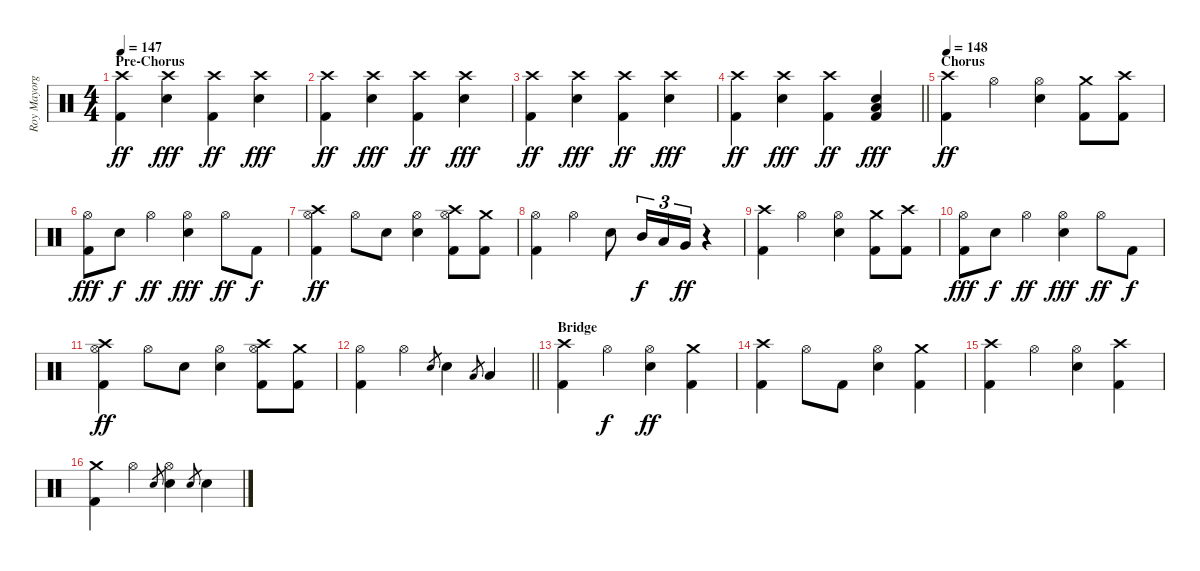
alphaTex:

\track ("Roy Mayorga (Drums)" "Roy Mayorg") {instrument percussion}
\staff {score}
\articulation defaults
\ts (4 4)
\section ("" "Pre-Chorus")
\tempo 147
\clef neutral
\ks c
("Crash high (hit)" "Kick (hit) 2").4{dy ff} ("Crash high (hit)" "Electric Snare (hit)").4{dy fff} ("Crash high (hit)" "Kick (hit) 2").4{dy ff} ("Crash high (hit)" "Electric Snare (hit)").4{dy fff} |
("Crash high (hit)" "Kick (hit) 2").4{dy ff} ("Crash high (hit)" "Electric Snare (hit)").4{dy fff} ("Crash high (hit)" "Kick (hit) 2").4{dy ff} ("Crash high (hit)" "Electric Snare (hit)").4{dy fff} |
("Crash high (hit)" "Kick (hit) 2").4{dy ff} ("Crash high (hit)" "Electric Snare (hit)").4{dy fff} ("Crash high (hit)" "Kick (hit) 2").4{dy ff} ("Crash high (hit)" "Electric Snare (hit)").4{dy fff} |
\barLineRight lightlight
("Crash high (hit)" "Kick (hit) 2").4{dy ff} ("Crash high (hit)" "Electric Snare (hit)").4{dy fff} ("Crash high (hit)" "Kick (hit) 2").4{dy ff} ("Low Tom (hit)" "Electric Snare (hit)" "Kick (hit) 2").4{dy fff} |
\section ("" "Chorus")
\tempo 148
("Crash high (hit)" "Kick (hit) 2").4{dy ff} "Hi-Hat (open)".4 ("Hi-Hat (open)" "Electric Snare (hit)").4 ("Crash medium (hit)" "Kick (hit) 2").8 ("Crash high (hit)" "Kick (hit) 2").8 |
("Hi-Hat (open)" "Kick (hit) 2").8{dy fff} "Electric Snare (hit)".8{dy f} "Hi-Hat (open)".4{dy ff} ("Hi-Hat (open)" "Electric Snare (hit)").4{dy fff} "Hi-Hat (open)".8{dy ff} "Kick (hit) 2".8{dy f} |
("Crash high (hit)" "Hi-Hat (open)" "Kick (hit) 2").4{dy ff} "Hi-Hat (open)".8 "Electric Snare (hit)".8 ("Hi-Hat (open)" "Electric Snare (hit)").4 ("Crash high (hit)" "Hi-Hat (open)" "Kick (hit) 2").8 ("Crash medium (hit)" "Kick (hit) 2").8 |
("Hi-Hat (open)" "Kick (hit) 2").4 "Hi-Hat (open)".4 "Electric Snare (hit)".8 "Mid Tom (hit)".16{tu (3 2) dy f} "Low Tom (hit)".16{tu (3 2)} "Very Low Tom (hit)".16{tu (3 2) dy ff} r.4 |
("Crash high (hit)" "Kick (hit) 2").4 "Hi-Hat (open)".4 ("Hi-Hat (open)" "Electric Snare (hit)").4 ("Crash medium (hit)" "Kick (hit) 2").8 ("Crash high (hit)" "Kick (hit) 2").8 |
("Hi-Hat (open)" "Kick (hit) 2").8{dy fff} "Electric Snare (hit)".8{dy f} "Hi-Hat (open)".4{dy ff} ("Hi-Hat (open)" "Electric Snare (hit)").4{dy fff} "Hi-Hat (open)".8{dy ff} "Kick (hit) 2".8{dy f} |
("Crash high (hit)" "Hi-Hat (open)" "Kick (hit) 2").4{dy ff} "Hi-Hat (open)".8 "Electric Snare (hit)".8 ("Hi-Hat (open)" "Electric Snare (hit)").4 ("Crash high (hit)" "Hi-Hat (open)" "Kick (hit) 2").8 ("Crash medium (hit)" "Kick (hit) 2").8 |
\barLineRight lightlight
("Hi-Hat (open)" "Kick (hit) 2").4 "Hi-Hat (open)".4 "Electric Snare (hit)".8{gr} "Electric Snare (hit)".4 "Low Tom (hit)".8{gr} "Low Tom (hit)".4 |
\section ("" "Bridge")
("Crash high (hit)" "Kick (hit) 2").4 "Hi-Hat (open)".4{dy f} ("Hi-Hat (open)" "Electric Snare (hit)").4{dy ff} ("Crash medium (hit)" "Kick (hit) 2").4 |
("Crash high (hit)" "Kick (hit) 2").4 "Hi-Hat (open)".8 "Kick (hit) 2".8 ("Hi-Hat (open)" "Electric Snare (hit)").4 ("Crash medium (hit)" "Kick (hit) 2").4 |
("Crash high (hit)" "Kick (hit) 2").4 "Hi-Hat (open)".4 ("Hi-Hat (open)" "Electric Snare (hit)").4 ("Crash high (hit)" "Kick (hit) 2").4 |
("Crash medium (hit)" "Kick (hit) 2").4 "Hi-Hat (open)".4 "Electric Snare (hit)".8{gr} ("Hi-Hat (open)" "Electric Snare (hit)").4 "Electric Snare (hit)".8{gr} "Electric Snare (hit)".4
